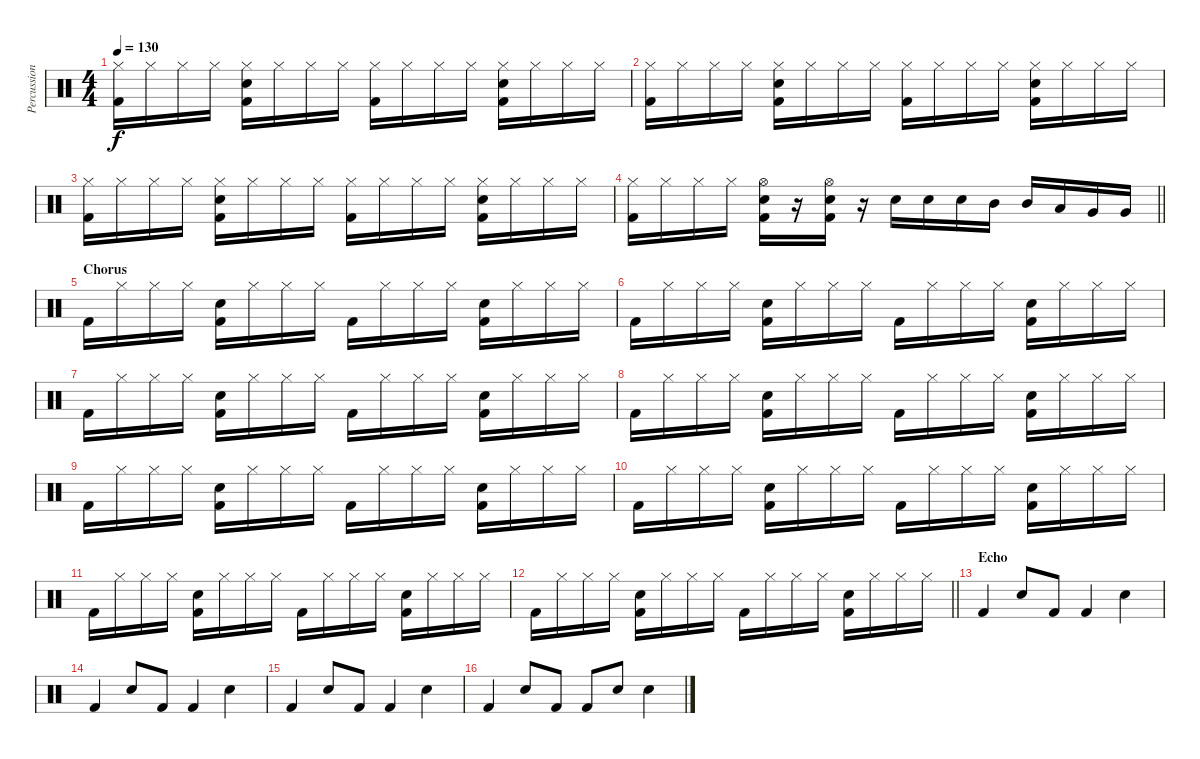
\track ("Percussion" "Percussion") {instrument percussion}
\staff {score}
\articulation defaults
\ts (4 4)
\tempo 130
\clef neutral
\ks c
("Hi-Hat (closed)" "Kick (hit) 2").16{dy f} "Hi-Hat (closed)".16 "Hi-Hat (closed)".16 "Hi-Hat (closed)".16 ("Hi-Hat (closed)" "Electric Snare (hit)" "Kick (hit) 2").16 "Hi-Hat (closed)".16 "Hi-Hat (closed)".16 "Hi-Hat (closed)".16 ("Hi-Hat (closed)" "Kick (hit) 2").16 "Hi-Hat (closed)".16 "Hi-Hat (closed)".16 "Hi-Hat (closed)".16 ("Hi-Hat (closed)" "Electric Snare (hit)" "Kick (hit) 2").16 "Hi-Hat (closed)".16 "Hi-Hat (closed)".16 "Hi-Hat (closed)".16 |
("Hi-Hat (closed)" "Kick (hit) 2").16 "Hi-Hat (closed)".16 "Hi-Hat (closed)".16 "Hi-Hat (closed)".16 ("Hi-Hat (closed)" "Electric Snare (hit)" "Kick (hit) 2").16 "Hi-Hat (closed)".16 "Hi-Hat (closed)".16 "Hi-Hat (closed)".16 ("Hi-Hat (closed)" "Kick (hit) 2").16 "Hi-Hat (closed)".16 "Hi-Hat (closed)".16 "Hi-Hat (closed)".16 ("Hi-Hat (closed)" "Electric Snare (hit)" "Kick (hit) 2").16 "Hi-Hat (closed)".16 "Hi-Hat (closed)".16 "Hi-Hat (closed)".16 |
("Hi-Hat (closed)" "Kick (hit) 2").16 "Hi-Hat (closed)".16 "Hi-Hat (closed)".16 "Hi-Hat (closed)".16 ("Hi-Hat (closed)" "Electric Snare (hit)" "Kick (hit) 2").16 "Hi-Hat (closed)".16 "Hi-Hat (closed)".16 "Hi-Hat (closed)".16 ("Hi-Hat (closed)" "Kick (hit) 2").16 "Hi-Hat (closed)".16 "Hi-Hat (closed)".16 "Hi-Hat (closed)".16 ("Hi-Hat (closed)" "Electric Snare (hit)" "Kick (hit) 2").16 "Hi-Hat (closed)".16 "Hi-Hat (closed)".16 "Hi-Hat (closed)".16 |
\barLineRight lightlight
("Hi-Hat (closed)" "Kick (hit) 2").16 "Hi-Hat (closed)".16 "Hi-Hat (closed)".16 "Hi-Hat (closed)".16 ("Hi-Hat (open)" "Electric Snare (hit)" "Kick (hit) 2").16 r.16 ("Hi-Hat (open)" "Electric Snare (hit)" "Kick (hit) 2").16 r.16 "Electric Snare (hit)".16 "Electric Snare (hit)".16 "Electric Snare (hit)".16 "Mid Tom (hit)".16 "Mid Tom (hit)".16 "Low Tom (hit)".16 "Very Low Tom (hit)".16 "Very Low Tom (hit)".16 |
\section ("" "Chorus")
"Kick (hit) 2".16 "Hi-Hat (closed)".16 "Hi-Hat (closed)".16 "Hi-Hat (closed)".16 ("Electric Snare (hit)" "Kick (hit) 2").16 "Hi-Hat (closed)".16 "Hi-Hat (closed)".16 "Hi-Hat (closed)".16 "Kick (hit) 2".16 "Hi-Hat (closed)".16 "Hi-Hat (closed)".16 "Hi-Hat (closed)".16 ("Electric Snare (hit)" "Kick (hit) 2").16 "Hi-Hat (closed)".16 "Hi-Hat (closed)".16 "Hi-Hat (closed)".16 |
"Kick (hit) 2".16 "Hi-Hat (closed)".16 "Hi-Hat (closed)".16 "Hi-Hat (closed)".16 ("Electric Snare (hit)" "Kick (hit) 2").16 "Hi-Hat (closed)".16 "Hi-Hat (closed)".16 "Hi-Hat (closed)".16 "Kick (hit) 2".16 "Hi-Hat (closed)".16 "Hi-Hat (closed)".16 "Hi-Hat (closed)".16 ("Electric Snare (hit)" "Kick (hit) 2").16 "Hi-Hat (closed)".16 "Hi-Hat (closed)".16 "Hi-Hat (closed)".16 |
"Kick (hit) 2".16 "Hi-Hat (closed)".16 "Hi-Hat (closed)".16 "Hi-Hat (closed)".16 ("Electric Snare (hit)" "Kick (hit) 2").16 "Hi-Hat (closed)".16 "Hi-Hat (closed)".16 "Hi-Hat (closed)".16 "Kick (hit) 2".16 "Hi-Hat (closed)".16 "Hi-Hat (closed)".16 "Hi-Hat (closed)".16 ("Electric Snare (hit)" "Kick (hit) 2").16 "Hi-Hat (closed)".16 "Hi-Hat (closed)".16 "Hi-Hat (closed)".16 |
"Kick (hit) 2".16 "Hi-Hat (closed)".16 "Hi-Hat (closed)".16 "Hi-Hat (closed)".16 ("Electric Snare (hit)" "Kick (hit) 2").16 "Hi-Hat (closed)".16 "Hi-Hat (closed)".16 "Hi-Hat (closed)".16 "Kick (hit) 2".16 "Hi-Hat (closed)".16 "Hi-Hat (closed)".16 "Hi-Hat (closed)".16 ("Electric Snare (hit)" "Kick (hit) 2").16 "Hi-Hat (closed)".16 "Hi-Hat (closed)".16 "Hi-Hat (closed)".16 |
"Kick (hit) 2".16 "Hi-Hat (closed)".16 "Hi-Hat (closed)".16 "Hi-Hat (closed)".16 ("Electric Snare (hit)" "Kick (hit) 2").16 "Hi-Hat (closed)".16 "Hi-Hat (closed)".16 "Hi-Hat (closed)".16 "Kick (hit) 2".16 "Hi-Hat (closed)".16 "Hi-Hat (closed)".16 "Hi-Hat (closed)".16 ("Electric Snare (hit)" "Kick (hit) 2").16 "Hi-Hat (closed)".16 "Hi-Hat (closed)".16 "Hi-Hat (closed)".16 |
"Kick (hit) 2".16 "Hi-Hat (closed)".16 "Hi-Hat (closed)".16 "Hi-Hat (closed)".16 ("Electric Snare (hit)" "Kick (hit) 2").16 "Hi-Hat (closed)".16 "Hi-Hat (closed)".16 "Hi-Hat (closed)".16 "Kick (hit) 2".16 "Hi-Hat (closed)".16 "Hi-Hat (closed)".16 "Hi-Hat (closed)".16 ("Electric Snare (hit)" "Kick (hit) 2").16 "Hi-Hat (closed)".16 "Hi-Hat (closed)".16 "Hi-Hat (closed)".16 |
"Kick (hit) 2".16 "Hi-Hat (closed)".16 "Hi-Hat (closed)".16 "Hi-Hat (closed)".16 ("Electric Snare (hit)" "Kick (hit) 2").16 "Hi-Hat (closed)".16 "Hi-Hat (closed)".16 "Hi-Hat (closed)".16 "Kick (hit) 2".16 "Hi-Hat (closed)".16 "Hi-Hat (closed)".16 "Hi-Hat (closed)".16 ("Electric Snare (hit)" "Kick (hit) 2").16 "Hi-Hat (closed)".16 "Hi-Hat (closed)".16 "Hi-Hat (closed)".16 |
\barLineRight lightlight "Kick (hit) 2".16 "Hi-Hat (closed)".16 "Hi-Hat (closed)".16 "Hi-Hat (closed)".16
("Electric Snare (hit)" "Kick (hit) 2").16 "Hi-Hat (closed)".16 "Hi-Hat (closed)".16 "Hi-Hat (closed)".16 "Kick (hit) 2".16 "Hi-Hat (closed)".16 "Hi-Hat (closed)".16 "Hi-Hat (closed)".16 ("Electric Snare (hit)" "Kick (hit) 2").16 "Hi-Hat (closed)".16 "Hi-Hat (closed)".16 "Hi-Hat (closed)".16 |
\section ("" "Echo")
"Kick (hit) 2".4 "Electric Snare (hit)".8 "Kick (hit) 2".8 "Kick (hit) 2".4 "Electric Snare (hit)".4 |
"Kick (hit) 2".4 "Electric Snare (hit)".8 "Kick (hit) 2".8 "Kick (hit) 2".4 "Electric Snare (hit)".4 |
"Kick (hit) 2".4 "Electric Snare (hit)".8 "Kick (hit) 2".8 "Kick (hit) 2".4 "Electric Snare (hit)".4 |
"Kick (hit) 2".4 "Electric Snare (hit)".8 "Kick (hit) 2".8 "Kick (hit) 2".8 "Electric Snare (hit)".8 "Electric Snare (hit)".4
